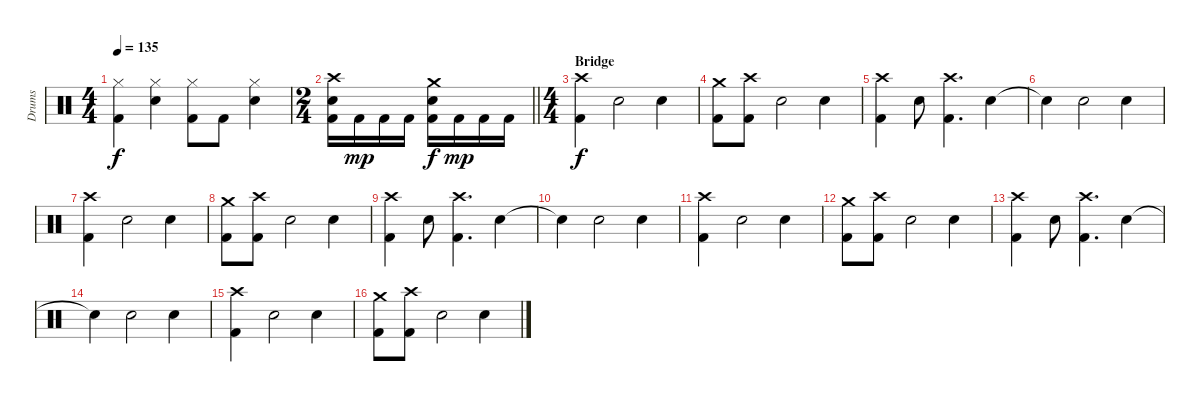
\track ("Drums" "Drums") {instrument percussion}
\staff {score}
\articulation defaults
\ts (4 4)
\tempo 135
\clef neutral
\ks c
("Hi-Hat (closed)" "Kick (hit) 2").4{dy f} ("Hi-Hat (closed)" "Snare (hit) 2").4 ("Hi-Hat (closed)" "Kick (hit) 2").8 "Kick (hit) 2".8 ("Hi-Hat (closed)" "Snare (hit) 2").4 |
\ts (2 4)
\barLineRight lightlight
("Crash high (hit)" "Snare (hit) 2" "Kick (hit) 2").16 "Kick (hit) 2".16{dy mp} "Kick (hit) 2".16 "Kick (hit) 2".16 ("Crash medium (hit)" "Snare (hit) 2" "Kick (hit) 2").16{dy f} "Kick (hit) 2".16{dy mp} "Kick (hit) 2".16 "Kick (hit) 2".16 |
\ts (4 4)
\section ("" "Bridge")
("Crash high (hit)" "Kick (hit) 2").4{dy f} "Snare (hit) 2".2 "Snare (hit) 2".4 |
("Crash medium (hit)" "Kick (hit) 2").8 ("Crash high (hit)" "Kick (hit) 2").8 "Snare (hit) 2".2 "Snare (hit) 2".4 |
("Crash high (hit)" "Kick (hit) 2").4 "Snare (hit) 2".8 ("Crash high (hit)" "Kick (hit) 2").4{d} "Snare (hit) 2".4 |
"Snare (hit) 2"{t}.4 "Snare (hit) 2".2 "Snare (hit) 2".4 |
("Crash high (hit)" "Kick (hit) 2").4 "Snare (hit) 2".2 "Snare (hit) 2".4 |
("Crash medium (hit)" "Kick (hit) 2").8 ("Crash high (hit)" "Kick (hit) 2").8 "Snare (hit) 2".2 "Snare (hit) 2".4 |
("Crash high (hit)" "Kick (hit) 2").4 "Snare (hit) 2".8 ("Crash high (hit)" "Kick (hit) 2").4{d} "Snare (hit) 2".4 |
"Snare (hit) 2"{t}.4 "Snare (hit) 2".2 "Snare (hit) 2".4 |
("Crash high (hit)" "Kick (hit) 2").4 "Snare (hit) 2".2 "Snare (hit) 2".4 |
("Crash medium (hit)" "Kick (hit) 2").8 ("Crash high (hit)" "Kick (hit) 2").8 "Snare (hit) 2".2 "Snare (hit) 2".4 |
("Crash high (hit)" "Kick (hit) 2").4 "Snare (hit) 2".8 ("Crash high (hit)" "Kick (hit) 2").4{d} "Snare (hit) 2".4 |
"Snare (hit) 2"{t}.4 "Snare (hit) 2".2 "Snare (hit) 2".4 |
("Crash high (hit)" "Kick (hit) 2").4 "Snare (hit) 2".2 "Snare (hit) 2".4 |
("Crash medium (hit)" "Kick (hit) 2").8 ("Crash high (hit)" "Kick (hit) 2").8 "Snare (hit) 2".2 "Snare (hit) 2".4
